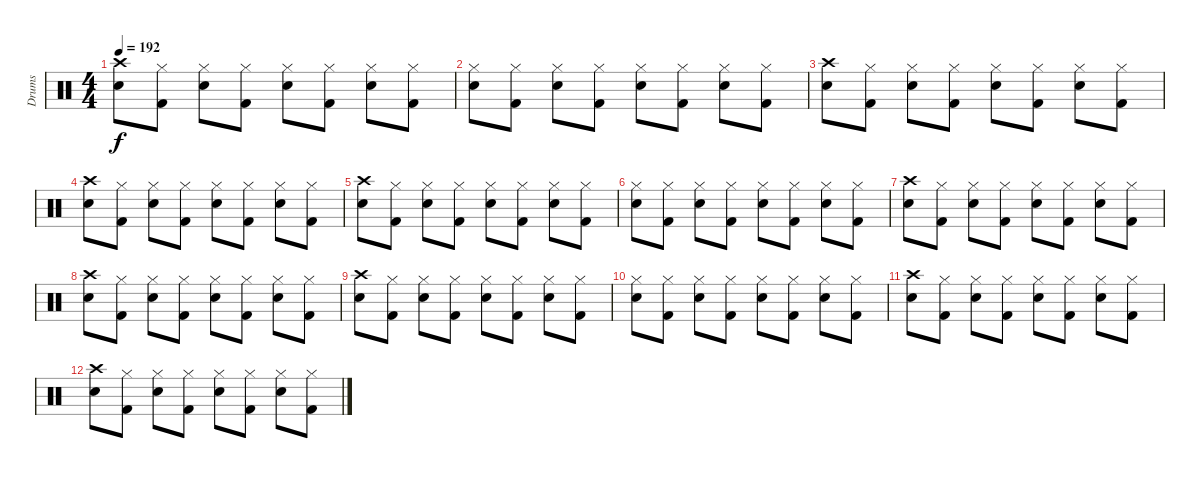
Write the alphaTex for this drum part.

\track ("Drums" "Drums") {instrument percussion}
\staff {score}
\articulation defaults
\ts (4 4)
\tempo 192
\clef neutral
\ks c
("Crash high (hit)" "Electric Snare (hit)").8{dy f volume 6} ("Hi-Hat (closed)" "Kick (hit) 2").8 ("Hi-Hat (closed)" "Electric Snare (hit)").8 ("Hi-Hat (closed)" "Kick (hit) 2").8 ("Hi-Hat (closed)" "Electric Snare (hit)").8 ("Hi-Hat (closed)" "Kick (hit) 2").8 ("Hi-Hat (closed)" "Electric Snare (hit)").8 ("Hi-Hat (closed)" "Kick (hit) 2").8 |
("Hi-Hat (closed)" "Electric Snare (hit)").8 ("Hi-Hat (closed)" "Kick (hit) 2").8 ("Hi-Hat (closed)" "Electric Snare (hit)").8 ("Hi-Hat (closed)" "Kick (hit) 2").8 ("Hi-Hat (closed)" "Electric Snare (hit)").8 ("Hi-Hat (closed)" "Kick (hit) 2").8 ("Hi-Hat (closed)" "Electric Snare (hit)").8 ("Hi-Hat (closed)" "Kick (hit) 2").8 |
("Crash high (hit)" "Electric Snare (hit)").8 ("Hi-Hat (closed)" "Kick (hit) 2").8 ("Hi-Hat (closed)" "Electric Snare (hit)").8 ("Hi-Hat (closed)" "Kick (hit) 2").8 ("Hi-Hat (closed)" "Electric Snare (hit)").8 ("Hi-Hat (closed)" "Kick (hit) 2").8 ("Hi-Hat (closed)" "Electric Snare (hit)").8 ("Hi-Hat (closed)" "Kick (hit) 2").8 |
("Crash high (hit)" "Electric Snare (hit)").8 ("Hi-Hat (closed)" "Kick (hit) 2").8 ("Hi-Hat (closed)" "Electric Snare (hit)").8 ("Hi-Hat (closed)" "Kick (hit) 2").8 ("Hi-Hat (closed)" "Electric Snare (hit)").8 ("Hi-Hat (closed)" "Kick (hit) 2").8 ("Hi-Hat (closed)" "Electric Snare (hit)").8 ("Hi-Hat (closed)" "Kick (hit) 2").8 |
("Crash high (hit)" "Electric Snare (hit)").8{volume 3} ("Hi-Hat (closed)" "Kick (hit) 2").8 ("Hi-Hat (closed)" "Electric Snare (hit)").8 ("Hi-Hat (closed)" "Kick (hit) 2").8 ("Hi-Hat (closed)" "Electric Snare (hit)").8 ("Hi-Hat (closed)" "Kick (hit) 2").8 ("Hi-Hat (closed)" "Electric Snare (hit)").8 ("Hi-Hat (closed)" "Kick (hit) 2").8 |
("Hi-Hat (closed)" "Electric Snare (hit)").8 ("Hi-Hat (closed)" "Kick (hit) 2").8 ("Hi-Hat (closed)" "Electric Snare (hit)").8 ("Hi-Hat (closed)" "Kick (hit) 2").8 ("Hi-Hat (closed)" "Electric Snare (hit)").8 ("Hi-Hat (closed)" "Kick (hit) 2").8 ("Hi-Hat (closed)" "Electric Snare (hit)").8 ("Hi-Hat (closed)" "Kick (hit) 2").8 |
("Crash high (hit)" "Electric Snare (hit)").8 ("Hi-Hat (closed)" "Kick (hit) 2").8 ("Hi-Hat (closed)" "Electric Snare (hit)").8 ("Hi-Hat (closed)" "Kick (hit) 2").8 ("Hi-Hat (closed)" "Electric Snare (hit)").8 ("Hi-Hat (closed)" "Kick (hit) 2").8 ("Hi-Hat (closed)" "Electric Snare (hit)").8 ("Hi-Hat (closed)" "Kick (hit) 2").8 |
("Crash high (hit)" "Electric Snare (hit)").8 ("Hi-Hat (closed)" "Kick (hit) 2").8 ("Hi-Hat (closed)" "Electric Snare (hit)").8 ("Hi-Hat (closed)" "Kick (hit) 2").8 ("Hi-Hat (closed)" "Electric Snare (hit)").8 ("Hi-Hat (closed)" "Kick (hit) 2").8 ("Hi-Hat (closed)" "Electric Snare (hit)").8 ("Hi-Hat (closed)" "Kick (hit) 2").8 |
("Crash high (hit)" "Electric Snare (hit)").8{volume 0} ("Hi-Hat (closed)" "Kick (hit) 2").8 ("Hi-Hat (closed)" "Electric Snare (hit)").8 ("Hi-Hat (closed)" "Kick (hit) 2").8 ("Hi-Hat (closed)" "Electric Snare (hit)").8 ("Hi-Hat (closed)" "Kick (hit) 2").8 ("Hi-Hat (closed)" "Electric Snare (hit)").8 ("Hi-Hat (closed)" "Kick (hit) 2").8 |
("Hi-Hat (closed)" "Electric Snare (hit)").8 ("Hi-Hat (closed)" "Kick (hit) 2").8 ("Hi-Hat (closed)" "Electric Snare (hit)").8 ("Hi-Hat (closed)" "Kick (hit) 2").8 ("Hi-Hat (closed)" "Electric Snare (hit)").8 ("Hi-Hat (closed)" "Kick (hit) 2").8 ("Hi-Hat (closed)" "Electric Snare (hit)").8 ("Hi-Hat (closed)" "Kick (hit) 2").8 |
("Crash high (hit)" "Electric Snare (hit)").8 ("Hi-Hat (closed)" "Kick (hit) 2").8 ("Hi-Hat (closed)" "Electric Snare (hit)").8 ("Hi-Hat (closed)" "Kick (hit) 2").8 ("Hi-Hat (closed)" "Electric Snare (hit)").8 ("Hi-Hat (closed)" "Kick (hit) 2").8 ("Hi-Hat (closed)" "Electric Snare (hit)").8 ("Hi-Hat (closed)" "Kick (hit) 2").8 |
("Crash high (hit)" "Electric Snare (hit)").8 ("Hi-Hat (closed)" "Kick (hit) 2").8 ("Hi-Hat (closed)" "Electric Snare (hit)").8 ("Hi-Hat (closed)" "Kick (hit) 2").8 ("Hi-Hat (closed)" "Electric Snare (hit)").8 ("Hi-Hat (closed)" "Kick (hit) 2").8 ("Hi-Hat (closed)" "Electric Snare (hit)").8 ("Hi-Hat (closed)" "Kick (hit) 2").8
